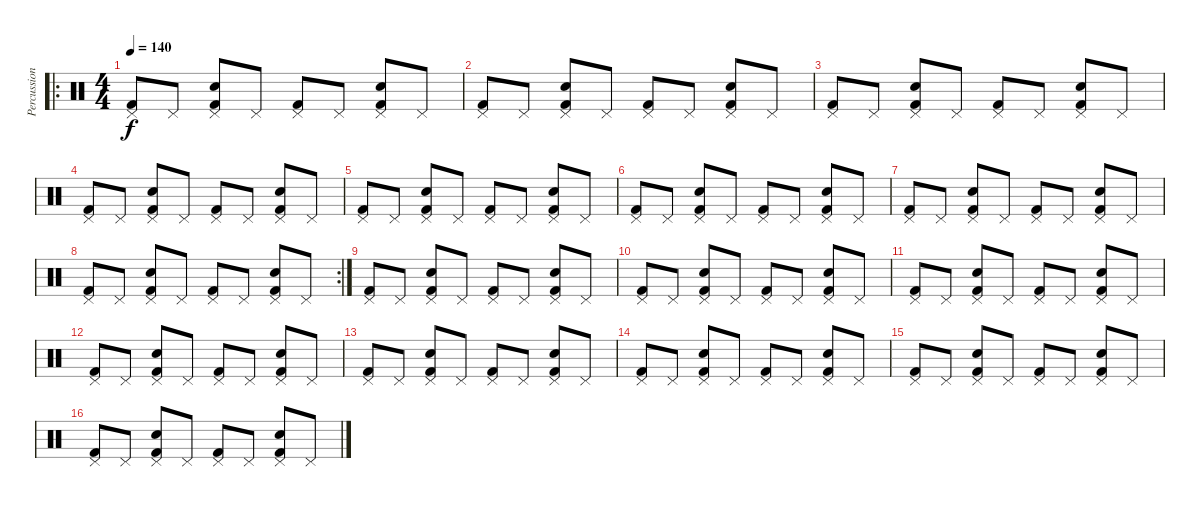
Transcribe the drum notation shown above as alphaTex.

\track ("Percussion" "Percussion") {instrument percussion}
\staff {score}
\articulation defaults
\ro
\ts (4 4)
\tempo 140
\clef neutral
\ks c
("Kick (hit) 2" "Pedal Hi-Hat (hit)").8{dy f} "Pedal Hi-Hat (hit)".8 ("Electric Snare (hit)" "Kick (hit) 2" "Pedal Hi-Hat (hit)").8 "Pedal Hi-Hat (hit)".8 ("Kick (hit) 2" "Pedal Hi-Hat (hit)").8 "Pedal Hi-Hat (hit)".8 ("Electric Snare (hit)" "Kick (hit) 2" "Pedal Hi-Hat (hit)").8 "Pedal Hi-Hat (hit)".8 |
("Kick (hit) 2" "Pedal Hi-Hat (hit)").8 "Pedal Hi-Hat (hit)".8 ("Electric Snare (hit)" "Kick (hit) 2" "Pedal Hi-Hat (hit)").8 "Pedal Hi-Hat (hit)".8 ("Kick (hit) 2" "Pedal Hi-Hat (hit)").8 "Pedal Hi-Hat (hit)".8 ("Electric Snare (hit)" "Kick (hit) 2" "Pedal Hi-Hat (hit)").8 "Pedal Hi-Hat (hit)".8 |
("Kick (hit) 2" "Pedal Hi-Hat (hit)").8 "Pedal Hi-Hat (hit)".8 ("Electric Snare (hit)" "Kick (hit) 2" "Pedal Hi-Hat (hit)").8 "Pedal Hi-Hat (hit)".8 ("Kick (hit) 2" "Pedal Hi-Hat (hit)").8 "Pedal Hi-Hat (hit)".8 ("Electric Snare (hit)" "Kick (hit) 2" "Pedal Hi-Hat (hit)").8 "Pedal Hi-Hat (hit)".8 |
("Kick (hit) 2" "Pedal Hi-Hat (hit)").8 "Pedal Hi-Hat (hit)".8 ("Electric Snare (hit)" "Kick (hit) 2" "Pedal Hi-Hat (hit)").8 "Pedal Hi-Hat (hit)".8 ("Kick (hit) 2" "Pedal Hi-Hat (hit)").8 "Pedal Hi-Hat (hit)".8 ("Electric Snare (hit)" "Kick (hit) 2" "Pedal Hi-Hat (hit)").8 "Pedal Hi-Hat (hit)".8 |
("Kick (hit) 2" "Pedal Hi-Hat (hit)").8 "Pedal Hi-Hat (hit)".8 ("Electric Snare (hit)" "Kick (hit) 2" "Pedal Hi-Hat (hit)").8 "Pedal Hi-Hat (hit)".8 ("Kick (hit) 2" "Pedal Hi-Hat (hit)").8 "Pedal Hi-Hat (hit)".8 ("Electric Snare (hit)" "Kick (hit) 2" "Pedal Hi-Hat (hit)").8 "Pedal Hi-Hat (hit)".8 |
("Kick (hit) 2" "Pedal Hi-Hat (hit)").8 "Pedal Hi-Hat (hit)".8 ("Electric Snare (hit)" "Kick (hit) 2" "Pedal Hi-Hat (hit)").8 "Pedal Hi-Hat (hit)".8 ("Kick (hit) 2" "Pedal Hi-Hat (hit)").8 "Pedal Hi-Hat (hit)".8 ("Electric Snare (hit)" "Kick (hit) 2" "Pedal Hi-Hat (hit)").8 "Pedal Hi-Hat (hit)".8 |
("Kick (hit) 2" "Pedal Hi-Hat (hit)").8 "Pedal Hi-Hat (hit)".8 ("Electric Snare (hit)" "Kick (hit) 2" "Pedal Hi-Hat (hit)").8 "Pedal Hi-Hat (hit)".8 ("Kick (hit) 2" "Pedal Hi-Hat (hit)").8 "Pedal Hi-Hat (hit)".8 ("Electric Snare (hit)" "Kick (hit) 2" "Pedal Hi-Hat (hit)").8 "Pedal Hi-Hat (hit)".8 |
\rc 2
("Kick (hit) 2" "Pedal Hi-Hat (hit)").8 "Pedal Hi-Hat (hit)".8 ("Electric Snare (hit)" "Kick (hit) 2" "Pedal Hi-Hat (hit)").8 "Pedal Hi-Hat (hit)".8 ("Kick (hit) 2" "Pedal Hi-Hat (hit)").8 "Pedal Hi-Hat (hit)".8 ("Electric Snare (hit)" "Kick (hit) 2" "Pedal Hi-Hat (hit)").8 "Pedal Hi-Hat (hit)".8 |
("Kick (hit) 2" "Pedal Hi-Hat (hit)").8 "Pedal Hi-Hat (hit)".8 ("Electric Snare (hit)" "Kick (hit) 2" "Pedal Hi-Hat (hit)").8 "Pedal Hi-Hat (hit)".8 ("Kick (hit) 2" "Pedal Hi-Hat (hit)").8 "Pedal Hi-Hat (hit)".8 ("Electric Snare (hit)" "Kick (hit) 2" "Pedal Hi-Hat (hit)").8 "Pedal Hi-Hat (hit)".8 |
("Kick (hit) 2" "Pedal Hi-Hat (hit)").8 "Pedal Hi-Hat (hit)".8 ("Electric Snare (hit)" "Kick (hit) 2" "Pedal Hi-Hat (hit)").8 "Pedal Hi-Hat (hit)".8 ("Kick (hit) 2" "Pedal Hi-Hat (hit)").8 "Pedal Hi-Hat (hit)".8 ("Electric Snare (hit)" "Kick (hit) 2" "Pedal Hi-Hat (hit)").8 "Pedal Hi-Hat (hit)".8 |
("Kick (hit) 2" "Pedal Hi-Hat (hit)").8 "Pedal Hi-Hat (hit)".8 ("Electric Snare (hit)" "Kick (hit) 2" "Pedal Hi-Hat (hit)").8 "Pedal Hi-Hat (hit)".8 ("Kick (hit) 2" "Pedal Hi-Hat (hit)").8 "Pedal Hi-Hat (hit)".8 ("Electric Snare (hit)" "Kick (hit) 2" "Pedal Hi-Hat (hit)").8 "Pedal Hi-Hat (hit)".8 |
("Kick (hit) 2" "Pedal Hi-Hat (hit)").8 "Pedal Hi-Hat (hit)".8 ("Electric Snare (hit)" "Kick (hit) 2" "Pedal Hi-Hat (hit)").8 "Pedal Hi-Hat (hit)".8 ("Kick (hit) 2" "Pedal Hi-Hat (hit)").8 "Pedal Hi-Hat (hit)".8 ("Electric Snare (hit)" "Kick (hit) 2" "Pedal Hi-Hat (hit)").8 "Pedal Hi-Hat (hit)".8 |
("Kick (hit) 2" "Pedal Hi-Hat (hit)").8 "Pedal Hi-Hat (hit)".8 ("Electric Snare (hit)" "Kick (hit) 2" "Pedal Hi-Hat (hit)").8 "Pedal Hi-Hat (hit)".8 ("Kick (hit) 2" "Pedal Hi-Hat (hit)").8 "Pedal Hi-Hat (hit)".8 ("Electric Snare (hit)" "Kick (hit) 2" "Pedal Hi-Hat (hit)").8 "Pedal Hi-Hat (hit)".8 |
("Kick (hit) 2" "Pedal Hi-Hat (hit)").8 "Pedal Hi-Hat (hit)".8 ("Electric Snare (hit)" "Kick (hit) 2" "Pedal Hi-Hat (hit)").8 "Pedal Hi-Hat (hit)".8 ("Kick (hit) 2" "Pedal Hi-Hat (hit)").8 "Pedal Hi-Hat (hit)".8 ("Electric Snare (hit)" "Kick (hit) 2" "Pedal Hi-Hat (hit)").8 "Pedal Hi-Hat (hit)".8 |
("Kick (hit) 2" "Pedal Hi-Hat (hit)").8 "Pedal Hi-Hat (hit)".8 ("Electric Snare (hit)" "Kick (hit) 2" "Pedal Hi-Hat (hit)").8 "Pedal Hi-Hat (hit)".8 ("Kick (hit) 2" "Pedal Hi-Hat (hit)").8 "Pedal Hi-Hat (hit)".8 ("Electric Snare (hit)" "Kick (hit) 2" "Pedal Hi-Hat (hit)").8 "Pedal Hi-Hat (hit)".8 |
("Kick (hit) 2" "Pedal Hi-Hat (hit)").8 "Pedal Hi-Hat (hit)".8 ("Electric Snare (hit)" "Kick (hit) 2" "Pedal Hi-Hat (hit)").8 "Pedal Hi-Hat (hit)".8 ("Kick (hit) 2" "Pedal Hi-Hat (hit)").8 "Pedal Hi-Hat (hit)".8 ("Electric Snare (hit)" "Kick (hit) 2" "Pedal Hi-Hat (hit)").8 "Pedal Hi-Hat (hit)".8
